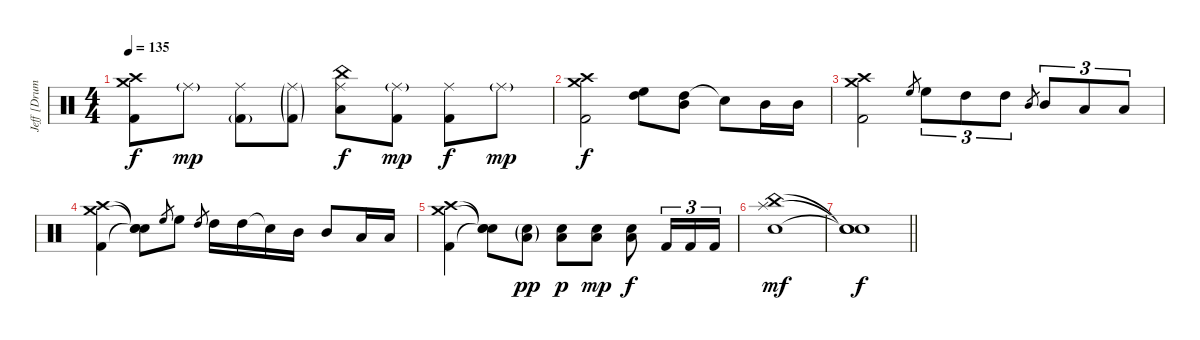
\track ("Jeff [Drums]" "Jeff [Drum") {instrument percussion}
\staff {score}
\articulation defaults
\ts (4 4)
\tempo 135
\clef neutral
\ks c
("Crash high (hit)" "Crash medium (hit)" "Kick (hit) 2").8{dy f} "Ride (middle)"{g}.8{dy mp} ("Ride (middle)" "Kick (hit) 2"{g}).8 ("Ride (middle)"{g} "Kick (hit) 2"{g}).8 ("China (hit)" "Ride (middle)" "Low Tom (hit)").8{dy f} ("Ride (middle)"{g} "Kick (hit) 2").8{dy mp} ("Ride (middle)" "Kick (hit) 2").8{dy f} "Ride (middle)"{g}.8{dy mp} |
("Crash high (hit)" "Crash medium (hit)" "Kick (hit) 2").2{dy f} ("High Floor Tom (hit)" "High Tom (hit)").8 ("High Tom (hit)" "Mid Tom (hit)").8 "Snare (hit)"{t}.8 "Mid Tom (hit)".16 "Mid Tom (hit)".16 |
("Crash high (hit)" "Crash medium (hit)" "Kick (hit) 2").2 "High Floor Tom (hit)".8{gr} "High Floor Tom (hit)".8{tu (3 2)} "High Tom (hit)".8{tu (3 2)} "High Tom (hit)".8{tu (3 2)} "Mid Tom (hit)".8{gr} "Mid Tom (hit)".8{tu (3 2)} "Low Tom (hit)".8{tu (3 2)} "Low Tom (hit)".8{tu (3 2)} |
("Crash high (hit)" "Crash medium (hit)" "Kick (hit) 2").4 ("Snare (hit)"{t} "Snare (hit)"{t} "Snare (hit)"{t}).8 "High Floor Tom (hit)".8{gr} "High Floor Tom (hit)".8 "High Tom (hit)".8{gr} "High Tom (hit)".16 "High Tom (hit)".16 "Snare (hit)"{t}.16 "Mid Tom (hit)".16 "Mid Tom (hit)".8 "Low Tom (hit)".16 "Low Tom (hit)".16 |
("Crash high (hit)" "Crash medium (hit)" "Kick (hit) 2").4 ("Snare (hit)"{t} "Snare (hit)"{t} "Snare (hit)"{t}).8 ("Low Tom (hit)"{g} "Electric Snare (hit)"{g}).8{dy pp} ("Low Tom (hit)" "Electric Snare (hit)").8{dy p} ("Low Tom (hit)" "Electric Snare (hit)").8{dy mp} ("Low Tom (hit)" "Electric Snare (hit)").8{dy f} "Kick (hit) 2".16{tu (3 2)} "Kick (hit) 2".16{tu (3 2)} "Kick (hit) 2".16{tu (3 2)} |
("China (hit)" "Splash (hit)" "Electric Snare (hit)").1{dy mf} |
\barLineRight lightlight
("Snare (hit)"{t} "Snare (hit)"{t} "Snare (hit)"{t}).1{dy f}
